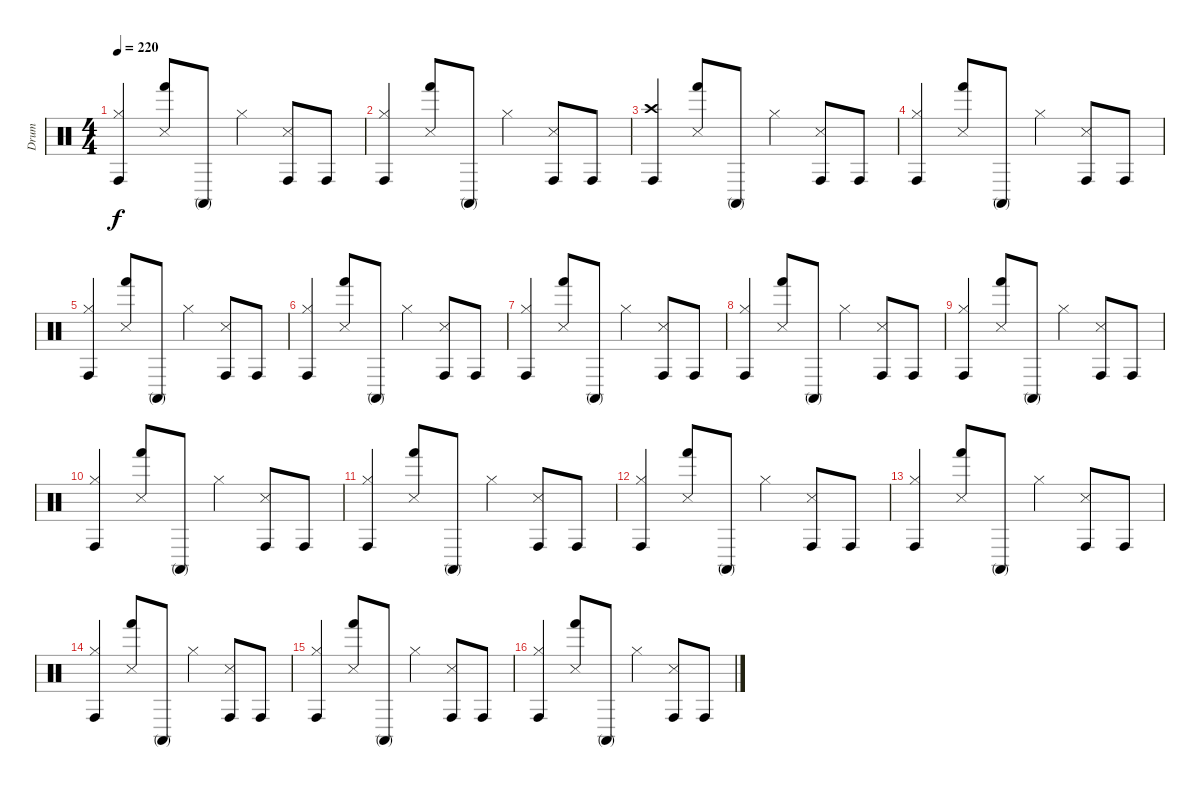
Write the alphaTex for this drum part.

\track ("Drum" "Drum") {instrument percussion}
\staff {score}
\articulation defaults
\ts (4 4)
\tempo 220
\clef neutral
\ks c
("Hi-Hat (closed)" "Conga high (hit)").4{dy f} ("Metronome (hit)" "Hand (hit)").8 "Conga high (mute)".8 "Hi-Hat (closed)".4 ("Metronome (hit)" "Conga high (hit)").8 "Conga high (hit)".8 |
("Hi-Hat (closed)" "Conga high (hit)").4 ("Metronome (hit)" "Hand (hit)").8 "Conga high (mute)".8 "Hi-Hat (closed)".4 ("Metronome (hit)" "Conga high (hit)").8 "Conga high (hit)".8 |
("Crash high (hit)" "Conga high (hit)").4 ("Metronome (hit)" "Hand (hit)").8 "Conga high (mute)".8 "Hi-Hat (closed)".4 ("Metronome (hit)" "Conga high (hit)").8 "Conga high (hit)".8 |
("Hi-Hat (closed)" "Conga high (hit)").4 ("Metronome (hit)" "Hand (hit)").8 "Conga high (mute)".8 "Hi-Hat (closed)".4 ("Metronome (hit)" "Conga high (hit)").8 "Conga high (hit)".8 |
("Hi-Hat (closed)" "Conga high (hit)").4 ("Metronome (hit)" "Hand (hit)").8 "Conga high (mute)".8 "Hi-Hat (closed)".4 ("Metronome (hit)" "Conga high (hit)").8 "Conga high (hit)".8 |
("Hi-Hat (closed)" "Conga high (hit)").4 ("Metronome (hit)" "Hand (hit)").8 "Conga high (mute)".8 "Hi-Hat (closed)".4 ("Metronome (hit)" "Conga high (hit)").8 "Conga high (hit)".8 |
("Hi-Hat (closed)" "Conga high (hit)").4 ("Metronome (hit)" "Hand (hit)").8 "Conga high (mute)".8 "Hi-Hat (closed)".4 ("Metronome (hit)" "Conga high (hit)").8 "Conga high (hit)".8 |
("Hi-Hat (closed)" "Conga high (hit)").4 ("Metronome (hit)" "Hand (hit)").8 "Conga high (mute)".8 "Hi-Hat (closed)".4 ("Metronome (hit)" "Conga high (hit)").8 "Conga high (hit)".8 |
("Hi-Hat (closed)" "Conga high (hit)").4 ("Metronome (hit)" "Hand (hit)").8 "Conga high (mute)".8 "Hi-Hat (closed)".4 ("Metronome (hit)" "Conga high (hit)").8 "Conga high (hit)".8 |
("Hi-Hat (closed)" "Conga high (hit)").4 ("Metronome (hit)" "Hand (hit)").8 "Conga high (mute)".8 "Hi-Hat (closed)".4 ("Metronome (hit)" "Conga high (hit)").8 "Conga high (hit)".8 |
("Hi-Hat (closed)" "Conga high (hit)").4 ("Metronome (hit)" "Hand (hit)").8 "Conga high (mute)".8 "Hi-Hat (closed)".4 ("Metronome (hit)" "Conga high (hit)").8 "Conga high (hit)".8 |
("Hi-Hat (closed)" "Conga high (hit)").4 ("Metronome (hit)" "Hand (hit)").8 "Conga high (mute)".8 "Hi-Hat (closed)".4 ("Metronome (hit)" "Conga high (hit)").8 "Conga high (hit)".8 |
("Hi-Hat (closed)" "Conga high (hit)").4 ("Metronome (hit)" "Hand (hit)").8 "Conga high (mute)".8 "Hi-Hat (closed)".4 ("Metronome (hit)" "Conga high (hit)").8 "Conga high (hit)".8 |
("Hi-Hat (closed)" "Conga high (hit)").4 ("Metronome (hit)" "Hand (hit)").8 "Conga high (mute)".8 "Hi-Hat (closed)".4 ("Metronome (hit)" "Conga high (hit)").8 "Conga high (hit)".8 |
("Hi-Hat (closed)" "Conga high (hit)").4 ("Metronome (hit)" "Hand (hit)").8 "Conga high (mute)".8 "Hi-Hat (closed)".4 ("Metronome (hit)" "Conga high (hit)").8 "Conga high (hit)".8 |
("Hi-Hat (closed)" "Conga high (hit)").4 ("Metronome (hit)" "Hand (hit)").8 "Conga high (mute)".8 "Hi-Hat (closed)".4 ("Metronome (hit)" "Conga high (hit)").8 "Conga high (hit)".8
